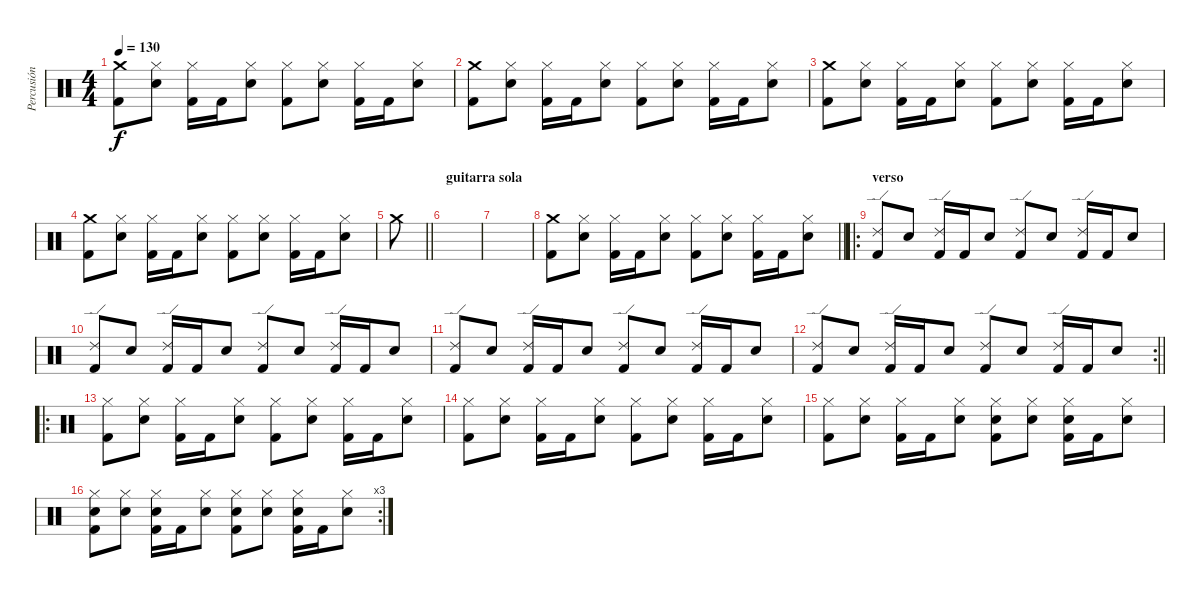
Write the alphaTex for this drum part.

\track ("Percusión" "Percusión") {instrument percussion}
\staff {score}
\articulation defaults
\ts (4 4)
\tempo 130
\clef neutral
\ks c
("Crash medium (hit)" "Kick (hit) 2").8{dy f} ("Hi-Hat (closed)" "Electric Snare (hit)").8 ("Hi-Hat (closed)" "Kick (hit) 2").16 "Kick (hit) 2".16 ("Hi-Hat (closed)" "Electric Snare (hit)").8 ("Hi-Hat (closed)" "Kick (hit) 2").8 ("Hi-Hat (closed)" "Electric Snare (hit)").8 ("Hi-Hat (closed)" "Kick (hit) 2").16 "Kick (hit) 2".16 ("Hi-Hat (closed)" "Electric Snare (hit)").8 |
("Crash medium (hit)" "Kick (hit) 2").8 ("Hi-Hat (closed)" "Electric Snare (hit)").8 ("Hi-Hat (closed)" "Kick (hit) 2").16 "Kick (hit) 2".16 ("Hi-Hat (closed)" "Electric Snare (hit)").8 ("Hi-Hat (closed)" "Kick (hit) 2").8 ("Hi-Hat (closed)" "Electric Snare (hit)").8 ("Hi-Hat (closed)" "Kick (hit) 2").16 "Kick (hit) 2".16 ("Hi-Hat (closed)" "Electric Snare (hit)").8 |
("Crash medium (hit)" "Kick (hit) 2").8 ("Hi-Hat (closed)" "Electric Snare (hit)").8 ("Hi-Hat (closed)" "Kick (hit) 2").16 "Kick (hit) 2".16 ("Hi-Hat (closed)" "Electric Snare (hit)").8 ("Hi-Hat (closed)" "Kick (hit) 2").8 ("Hi-Hat (closed)" "Electric Snare (hit)").8 ("Hi-Hat (closed)" "Kick (hit) 2").16 "Kick (hit) 2".16 ("Hi-Hat (closed)" "Electric Snare (hit)").8 |
("Crash medium (hit)" "Kick (hit) 2").8 ("Hi-Hat (closed)" "Electric Snare (hit)").8 ("Hi-Hat (closed)" "Kick (hit) 2").16 "Kick (hit) 2".16 ("Hi-Hat (closed)" "Electric Snare (hit)").8 ("Hi-Hat (closed)" "Kick (hit) 2").8 ("Hi-Hat (closed)" "Electric Snare (hit)").8 ("Hi-Hat (closed)" "Kick (hit) 2").16 "Kick (hit) 2".16 ("Hi-Hat (closed)" "Electric Snare (hit)").8 |
\barLineRight lightlight "Crash medium (hit)".8
|
\section ("" "guitarra sola")
|
|
\barLineRight lightlight
("Crash medium (hit)" "Kick (hit) 2").8 ("Hi-Hat (closed)" "Electric Snare (hit)").8 ("Hi-Hat (closed)" "Kick (hit) 2").16 "Kick (hit) 2".16 ("Hi-Hat (closed)" "Electric Snare (hit)").8 ("Hi-Hat (closed)" "Kick (hit) 2").8 ("Hi-Hat (closed)" "Electric Snare (hit)").8 ("Hi-Hat (closed)" "Kick (hit) 2").16 "Kick (hit) 2".16 ("Hi-Hat (closed)" "Electric Snare (hit)").8 |
\ro
\section ("" "verso")
("Ride (edge) 2" "Kick (hit) 2").8 "Electric Snare (hit)".8 ("Ride (edge) 2" "Kick (hit) 2").16 "Kick (hit) 2".16 "Electric Snare (hit)".8 ("Ride (edge) 2" "Kick (hit) 2").8 "Electric Snare (hit)".8 ("Ride (edge) 2" "Kick (hit) 2").16 "Kick (hit) 2".16 "Electric Snare (hit)".8 |
("Ride (edge) 2" "Kick (hit) 2").8 "Electric Snare (hit)".8 ("Ride (edge) 2" "Kick (hit) 2").16 "Kick (hit) 2".16 "Electric Snare (hit)".8 ("Ride (edge) 2" "Kick (hit) 2").8 "Electric Snare (hit)".8 ("Ride (edge) 2" "Kick (hit) 2").16 "Kick (hit) 2".16 "Electric Snare (hit)".8 |
("Ride (edge) 2" "Kick (hit) 2").8 "Electric Snare (hit)".8 ("Ride (edge) 2" "Kick (hit) 2").16 "Kick (hit) 2".16 "Electric Snare (hit)".8 ("Ride (edge) 2" "Kick (hit) 2").8 "Electric Snare (hit)".8 ("Ride (edge) 2" "Kick (hit) 2").16 "Kick (hit) 2".16 "Electric Snare (hit)".8 |
\rc 2
\barLineRight lightlight
("Ride (edge) 2" "Kick (hit) 2").8 "Electric Snare (hit)".8 ("Ride (edge) 2" "Kick (hit) 2").16 "Kick (hit) 2".16 "Electric Snare (hit)".8 ("Ride (edge) 2" "Kick (hit) 2").8 "Electric Snare (hit)".8 ("Ride (edge) 2" "Kick (hit) 2").16 "Kick (hit) 2".16 "Electric Snare (hit)".8 |
\ro
("Hi-Hat (closed)" "Kick (hit) 2").8 ("Hi-Hat (closed)" "Electric Snare (hit)").8 ("Hi-Hat (closed)" "Kick (hit) 2").16 "Kick (hit) 2".16 ("Hi-Hat (closed)" "Electric Snare (hit)").8 ("Hi-Hat (closed)" "Kick (hit) 2").8 ("Hi-Hat (closed)" "Electric Snare (hit)").8 ("Hi-Hat (closed)" "Kick (hit) 2").16 "Kick (hit) 2".16 ("Hi-Hat (closed)" "Electric Snare (hit)").8 |
("Hi-Hat (closed)" "Kick (hit) 2").8 ("Hi-Hat (closed)" "Electric Snare (hit)").8 ("Hi-Hat (closed)" "Kick (hit) 2").16 "Kick (hit) 2".16 ("Hi-Hat (closed)" "Electric Snare (hit)").8 ("Hi-Hat (closed)" "Kick (hit) 2").8 ("Hi-Hat (closed)" "Electric Snare (hit)").8 ("Hi-Hat (closed)" "Kick (hit) 2").16 "Kick (hit) 2".16 ("Hi-Hat (closed)" "Electric Snare (hit)").8 |
("Hi-Hat (closed)" "Kick (hit) 2").8 ("Hi-Hat (closed)" "Electric Snare (hit)").8 ("Hi-Hat (closed)" "Kick (hit) 2").16 "Kick (hit) 2".16 ("Hi-Hat (closed)" "Electric Snare (hit)").8 ("Hi-Hat (closed)" "Electric Snare (hit)" "Kick (hit) 2").8 ("Hi-Hat (closed)" "Electric Snare (hit)").8 ("Hi-Hat (closed)" "Electric Snare (hit)" "Kick (hit) 2").16 "Kick (hit) 2".16 ("Hi-Hat (closed)" "Electric Snare (hit)").8 |
\rc 3
("Hi-Hat (closed)" "Electric Snare (hit)" "Kick (hit) 2").8 ("Hi-Hat (closed)" "Electric Snare (hit)").8 ("Hi-Hat (closed)" "Electric Snare (hit)" "Kick (hit) 2").16 "Kick (hit) 2".16 ("Hi-Hat (closed)" "Electric Snare (hit)").8 ("Hi-Hat (closed)" "Electric Snare (hit)" "Kick (hit) 2").8 ("Hi-Hat (closed)" "Electric Snare (hit)").8 ("Hi-Hat (closed)" "Electric Snare (hit)" "Kick (hit) 2").16 "Kick (hit) 2".16 ("Hi-Hat (closed)" "Electric Snare (hit)").8
